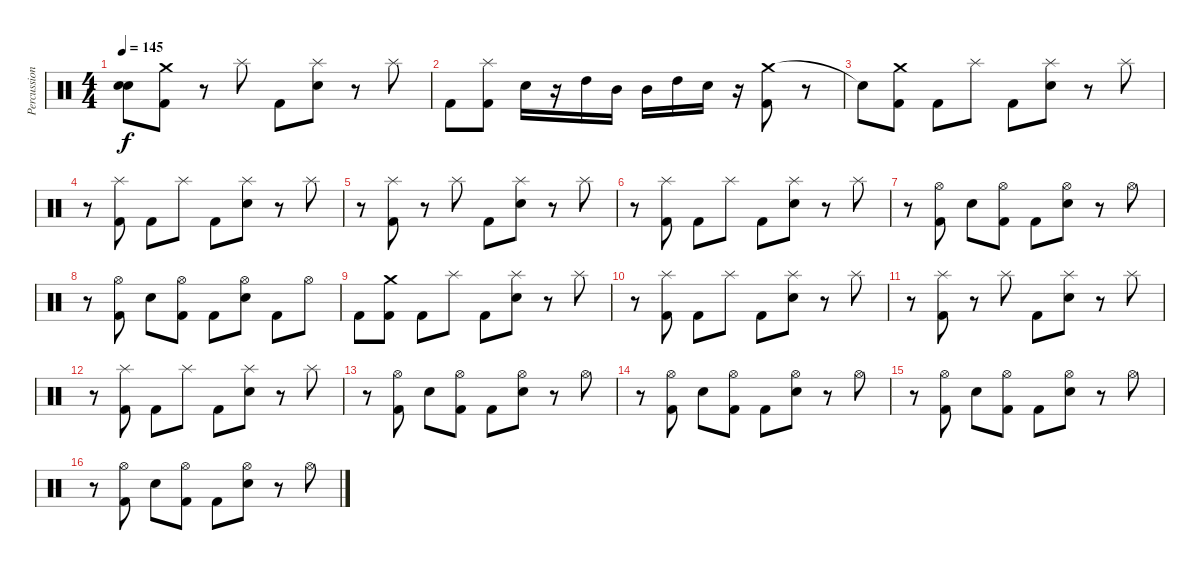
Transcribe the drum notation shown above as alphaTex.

\track ("Percussion" "Percussion") {instrument percussion}
\staff {score}
\articulation defaults
\ts (4 4)
\tempo 145
\clef neutral
\ks c
("Snare (hit)"{t} "Snare (hit)"{t}).8{dy f} ("Crash medium (hit)" "Kick (hit) 2").8 r.8 "Splash (hit)".8 "Kick (hit) 2".8 ("Splash (hit)" "Electric Snare (hit)").8 r.8 "Splash (hit)".8 |
"Kick (hit) 2".8 ("Splash (hit)" "Kick (hit) 2").8 "Electric Snare (hit)".16 r.16 "High Tom (hit)".16 "Mid Tom (hit)".16 "Mid Tom (hit)".16 "High Tom (hit)".16 "Electric Snare (hit)".16 r.16 ("Crash medium (hit)" "Kick (hit) 2").8 r.8 |
"Snare (hit)"{t}.8 ("Crash medium (hit)" "Kick (hit) 2").8 "Kick (hit) 2".8 "Splash (hit)".8 "Kick (hit) 2".8 ("Splash (hit)" "Electric Snare (hit)").8 r.8 "Splash (hit)".8 |
r.8 ("Splash (hit)" "Kick (hit) 2").8 "Kick (hit) 2".8 "Splash (hit)".8 "Kick (hit) 2".8 ("Splash (hit)" "Electric Snare (hit)").8 r.8 "Splash (hit)".8 |
r.8 ("Splash (hit)" "Kick (hit) 2").8 r.8 "Splash (hit)".8 "Kick (hit) 2".8 ("Splash (hit)" "Electric Snare (hit)").8 r.8 "Splash (hit)".8 |
r.8 ("Splash (hit)" "Kick (hit) 2").8 "Kick (hit) 2".8 "Splash (hit)".8 "Kick (hit) 2".8 ("Splash (hit)" "Electric Snare (hit)").8 r.8 "Splash (hit)".8 |
r.8 ("Hi-Hat (open)" "Kick (hit) 2").8 "Electric Snare (hit)".8 ("Hi-Hat (open)" "Kick (hit) 2").8 "Kick (hit) 2".8 ("Hi-Hat (open)" "Electric Snare (hit)").8 r.8 "Hi-Hat (open)".8 |
r.8 ("Hi-Hat (open)" "Kick (hit) 2").8 "Electric Snare (hit)".8 ("Hi-Hat (open)" "Kick (hit) 2").8 "Kick (hit) 2".8 ("Hi-Hat (open)" "Electric Snare (hit)").8 "Kick (hit) 2".8 "Hi-Hat (open)".8 |
"Kick (hit) 2".8 ("Crash medium (hit)" "Kick (hit) 2").8 "Kick (hit) 2".8 "Splash (hit)".8 "Kick (hit) 2".8 ("Splash (hit)" "Electric Snare (hit)").8 r.8 "Splash (hit)".8 |
r.8 ("Splash (hit)" "Kick (hit) 2").8 "Kick (hit) 2".8 "Splash (hit)".8 "Kick (hit) 2".8 ("Splash (hit)" "Electric Snare (hit)").8 r.8 "Splash (hit)".8 |
r.8 ("Splash (hit)" "Kick (hit) 2").8 r.8 "Splash (hit)".8 "Kick (hit) 2".8 ("Splash (hit)" "Electric Snare (hit)").8 r.8 "Splash (hit)".8 |
r.8 ("Splash (hit)" "Kick (hit) 2").8 "Kick (hit) 2".8 "Splash (hit)".8 "Kick (hit) 2".8 ("Splash (hit)" "Electric Snare (hit)").8 r.8 "Splash (hit)".8 |
r.8 ("Hi-Hat (open)" "Kick (hit) 2").8 "Electric Snare (hit)".8 ("Hi-Hat (open)" "Kick (hit) 2").8 "Kick (hit) 2".8 ("Hi-Hat (open)" "Electric Snare (hit)").8 r.8 "Hi-Hat (open)".8 |
r.8 ("Hi-Hat (open)" "Kick (hit) 2").8 "Electric Snare (hit)".8 ("Hi-Hat (open)" "Kick (hit) 2").8 "Kick (hit) 2".8 ("Hi-Hat (open)" "Electric Snare (hit)").8 r.8 "Hi-Hat (open)".8 |
r.8 ("Hi-Hat (open)" "Kick (hit) 2").8 "Electric Snare (hit)".8 ("Hi-Hat (open)" "Kick (hit) 2").8 "Kick (hit) 2".8 ("Hi-Hat (open)" "Electric Snare (hit)").8 r.8 "Hi-Hat (open)".8 |
r.8 ("Hi-Hat (open)" "Kick (hit) 2").8 "Electric Snare (hit)".8 ("Hi-Hat (open)" "Kick (hit) 2").8 "Kick (hit) 2".8 ("Hi-Hat (open)" "Electric Snare (hit)").8 r.8 "Hi-Hat (open)".8
